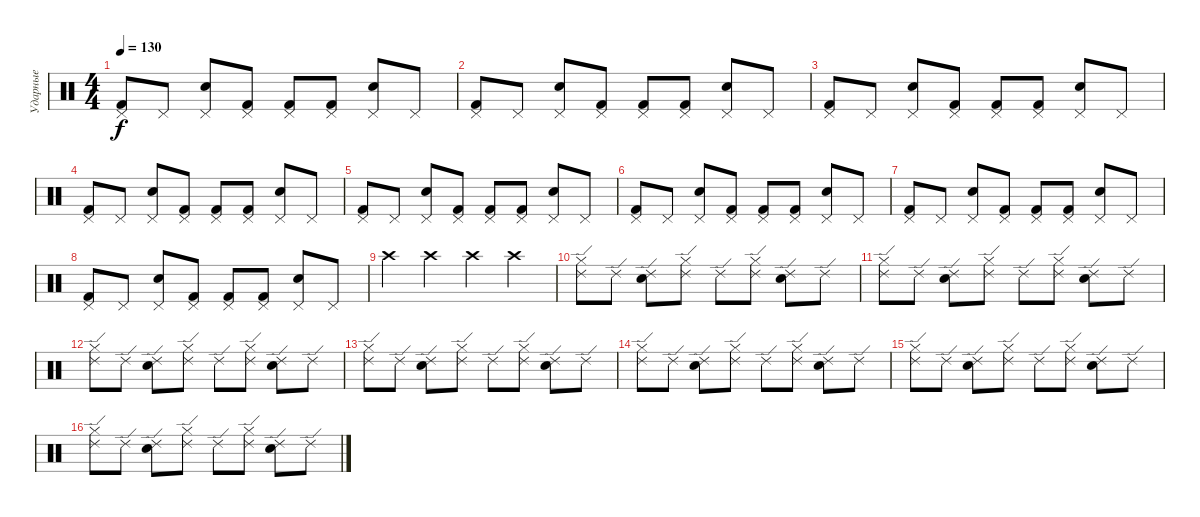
\track ("Ударные" "Ударные") {instrument percussion}
\staff {score}
\articulation defaults
\ts (4 4)
\tempo 130
\clef neutral
\ks c
("Pedal Hi-Hat (hit)" "Kick (hit) 2").8{dy f} "Pedal Hi-Hat (hit)".8 ("Pedal Hi-Hat (hit)" "Snare (hit) 2").8 ("Pedal Hi-Hat (hit)" "Kick (hit) 2").8 ("Pedal Hi-Hat (hit)" "Kick (hit) 2").8 ("Pedal Hi-Hat (hit)" "Kick (hit) 2").8 ("Pedal Hi-Hat (hit)" "Snare (hit) 2").8 "Pedal Hi-Hat (hit)".8 |
("Pedal Hi-Hat (hit)" "Kick (hit) 2").8 "Pedal Hi-Hat (hit)".8 ("Pedal Hi-Hat (hit)" "Snare (hit) 2").8 ("Pedal Hi-Hat (hit)" "Kick (hit) 2").8 ("Pedal Hi-Hat (hit)" "Kick (hit) 2").8 ("Pedal Hi-Hat (hit)" "Kick (hit) 2").8 ("Pedal Hi-Hat (hit)" "Snare (hit) 2").8 "Pedal Hi-Hat (hit)".8 |
("Pedal Hi-Hat (hit)" "Kick (hit) 2").8 "Pedal Hi-Hat (hit)".8 ("Pedal Hi-Hat (hit)" "Snare (hit) 2").8 ("Pedal Hi-Hat (hit)" "Kick (hit) 2").8 ("Pedal Hi-Hat (hit)" "Kick (hit) 2").8 ("Pedal Hi-Hat (hit)" "Kick (hit) 2").8 ("Pedal Hi-Hat (hit)" "Snare (hit) 2").8 "Pedal Hi-Hat (hit)".8 |
("Pedal Hi-Hat (hit)" "Kick (hit) 2").8 "Pedal Hi-Hat (hit)".8 ("Pedal Hi-Hat (hit)" "Snare (hit) 2").8 ("Pedal Hi-Hat (hit)" "Kick (hit) 2").8 ("Pedal Hi-Hat (hit)" "Kick (hit) 2").8 ("Pedal Hi-Hat (hit)" "Kick (hit) 2").8 ("Pedal Hi-Hat (hit)" "Snare (hit) 2").8 "Pedal Hi-Hat (hit)".8 |
("Pedal Hi-Hat (hit)" "Kick (hit) 2").8 "Pedal Hi-Hat (hit)".8 ("Pedal Hi-Hat (hit)" "Snare (hit) 2").8 ("Pedal Hi-Hat (hit)" "Kick (hit) 2").8 ("Pedal Hi-Hat (hit)" "Kick (hit) 2").8 ("Pedal Hi-Hat (hit)" "Kick (hit) 2").8 ("Pedal Hi-Hat (hit)" "Snare (hit) 2").8 "Pedal Hi-Hat (hit)".8 |
("Pedal Hi-Hat (hit)" "Kick (hit) 2").8 "Pedal Hi-Hat (hit)".8 ("Pedal Hi-Hat (hit)" "Snare (hit) 2").8 ("Pedal Hi-Hat (hit)" "Kick (hit) 2").8 ("Pedal Hi-Hat (hit)" "Kick (hit) 2").8 ("Pedal Hi-Hat (hit)" "Kick (hit) 2").8 ("Pedal Hi-Hat (hit)" "Snare (hit) 2").8 "Pedal Hi-Hat (hit)".8 |
("Pedal Hi-Hat (hit)" "Kick (hit) 2").8 "Pedal Hi-Hat (hit)".8 ("Pedal Hi-Hat (hit)" "Snare (hit) 2").8 ("Pedal Hi-Hat (hit)" "Kick (hit) 2").8 ("Pedal Hi-Hat (hit)" "Kick (hit) 2").8 ("Pedal Hi-Hat (hit)" "Kick (hit) 2").8 ("Pedal Hi-Hat (hit)" "Snare (hit) 2").8 "Pedal Hi-Hat (hit)".8 |
("Pedal Hi-Hat (hit)" "Kick (hit) 2").8 "Pedal Hi-Hat (hit)".8 ("Pedal Hi-Hat (hit)" "Snare (hit) 2").8 ("Pedal Hi-Hat (hit)" "Kick (hit) 2").8 ("Pedal Hi-Hat (hit)" "Kick (hit) 2").8 ("Pedal Hi-Hat (hit)" "Kick (hit) 2").8 ("Pedal Hi-Hat (hit)" "Snare (hit) 2").8 "Pedal Hi-Hat (hit)".8 |
"Crash high (hit)".4 "Crash high (hit)".4 "Crash high (hit)".4 "Crash high (hit)".4 |
("Hi-Hat (closed)" "Ride (edge) 2").8 "Ride (edge) 2".8 ("Snare (hit) 2" "Ride (edge) 2").8 ("Hi-Hat (closed)" "Ride (edge) 2").8 "Ride (edge) 2".8 ("Hi-Hat (closed)" "Ride (edge) 2").8 ("Snare (hit) 2" "Ride (edge) 2").8 "Ride (edge) 2".8 |
("Hi-Hat (closed)" "Ride (edge) 2").8 "Ride (edge) 2".8 ("Snare (hit) 2" "Ride (edge) 2").8 ("Hi-Hat (closed)" "Ride (edge) 2").8 "Ride (edge) 2".8 ("Hi-Hat (closed)" "Ride (edge) 2").8 ("Snare (hit) 2" "Ride (edge) 2").8 "Ride (edge) 2".8 |
("Hi-Hat (closed)" "Ride (edge) 2").8 "Ride (edge) 2".8 ("Snare (hit) 2" "Ride (edge) 2").8 ("Hi-Hat (closed)" "Ride (edge) 2").8 "Ride (edge) 2".8 ("Hi-Hat (closed)" "Ride (edge) 2").8 ("Snare (hit) 2" "Ride (edge) 2").8 "Ride (edge) 2".8 |
("Hi-Hat (closed)" "Ride (edge) 2").8 "Ride (edge) 2".8 ("Snare (hit) 2" "Ride (edge) 2").8 ("Hi-Hat (closed)" "Ride (edge) 2").8 "Ride (edge) 2".8 ("Hi-Hat (closed)" "Ride (edge) 2").8 ("Snare (hit) 2" "Ride (edge) 2").8 "Ride (edge) 2".8 |
("Hi-Hat (closed)" "Ride (edge) 2").8 "Ride (edge) 2".8 ("Snare (hit) 2" "Ride (edge) 2").8 ("Hi-Hat (closed)" "Ride (edge) 2").8 "Ride (edge) 2".8 ("Hi-Hat (closed)" "Ride (edge) 2").8 ("Snare (hit) 2" "Ride (edge) 2").8 "Ride (edge) 2".8 |
("Hi-Hat (closed)" "Ride (edge) 2").8 "Ride (edge) 2".8 ("Snare (hit) 2" "Ride (edge) 2").8 ("Hi-Hat (closed)" "Ride (edge) 2").8 "Ride (edge) 2".8 ("Hi-Hat (closed)" "Ride (edge) 2").8 ("Snare (hit) 2" "Ride (edge) 2").8 "Ride (edge) 2".8 |
("Hi-Hat (closed)" "Ride (edge) 2").8 "Ride (edge) 2".8 ("Snare (hit) 2" "Ride (edge) 2").8 ("Hi-Hat (closed)" "Ride (edge) 2").8 "Ride (edge) 2".8 ("Hi-Hat (closed)" "Ride (edge) 2").8 ("Snare (hit) 2" "Ride (edge) 2").8 "Ride (edge) 2".8
